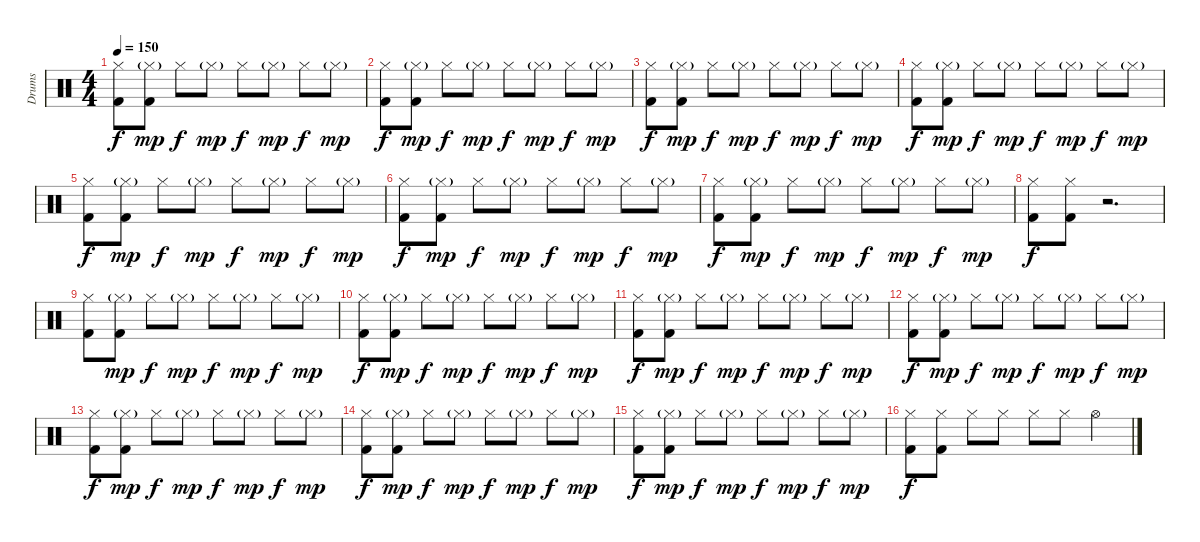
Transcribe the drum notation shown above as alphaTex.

\track ("Drums" "Drums") {instrument percussion}
\staff {score}
\articulation defaults
\ts (4 4)
\tempo 150
\clef neutral
\ks c
("Hi-Hat (closed)" "Kick (hit) 2").8{dy f} ("Hi-Hat (closed)"{g} "Kick (hit) 2").8{dy mp} "Hi-Hat (closed)".8{dy f} "Hi-Hat (closed)"{g}.8{dy mp} "Hi-Hat (closed)".8{dy f} "Hi-Hat (closed)"{g}.8{dy mp} "Hi-Hat (closed)".8{dy f} "Hi-Hat (closed)"{g}.8{dy mp} |
("Hi-Hat (closed)" "Kick (hit) 2").8{dy f} ("Hi-Hat (closed)"{g} "Kick (hit) 2").8{dy mp} "Hi-Hat (closed)".8{dy f} "Hi-Hat (closed)"{g}.8{dy mp} "Hi-Hat (closed)".8{dy f} "Hi-Hat (closed)"{g}.8{dy mp} "Hi-Hat (closed)".8{dy f} "Hi-Hat (closed)"{g}.8{dy mp} |
("Hi-Hat (closed)" "Kick (hit) 2").8{dy f} ("Hi-Hat (closed)"{g} "Kick (hit) 2").8{dy mp} "Hi-Hat (closed)".8{dy f} "Hi-Hat (closed)"{g}.8{dy mp} "Hi-Hat (closed)".8{dy f} "Hi-Hat (closed)"{g}.8{dy mp} "Hi-Hat (closed)".8{dy f} "Hi-Hat (closed)"{g}.8{dy mp} |
("Hi-Hat (closed)" "Kick (hit) 2").8{dy f} ("Hi-Hat (closed)"{g} "Kick (hit) 2").8{dy mp} "Hi-Hat (closed)".8{dy f} "Hi-Hat (closed)"{g}.8{dy mp} "Hi-Hat (closed)".8{dy f} "Hi-Hat (closed)"{g}.8{dy mp} "Hi-Hat (closed)".8{dy f} "Hi-Hat (closed)"{g}.8{dy mp} |
("Hi-Hat (closed)" "Kick (hit) 2").8{dy f} ("Hi-Hat (closed)"{g} "Kick (hit) 2").8{dy mp} "Hi-Hat (closed)".8{dy f} "Hi-Hat (closed)"{g}.8{dy mp} "Hi-Hat (closed)".8{dy f} "Hi-Hat (closed)"{g}.8{dy mp} "Hi-Hat (closed)".8{dy f} "Hi-Hat (closed)"{g}.8{dy mp} |
("Hi-Hat (closed)" "Kick (hit) 2").8{dy f} ("Hi-Hat (closed)"{g} "Kick (hit) 2").8{dy mp} "Hi-Hat (closed)".8{dy f} "Hi-Hat (closed)"{g}.8{dy mp} "Hi-Hat (closed)".8{dy f} "Hi-Hat (closed)"{g}.8{dy mp} "Hi-Hat (closed)".8{dy f} "Hi-Hat (closed)"{g}.8{dy mp} |
("Hi-Hat (closed)" "Kick (hit) 2").8{dy f} ("Hi-Hat (closed)"{g} "Kick (hit) 2").8{dy mp} "Hi-Hat (closed)".8{dy f} "Hi-Hat (closed)"{g}.8{dy mp} "Hi-Hat (closed)".8{dy f} "Hi-Hat (closed)"{g}.8{dy mp} "Hi-Hat (closed)".8{dy f} "Hi-Hat (closed)"{g}.8{dy mp} |
("Hi-Hat (closed)" "Kick (hit) 2").8{dy f} ("Hi-Hat (closed)" "Kick (hit) 2").8 r.2{d} |
("Hi-Hat (closed)" "Kick (hit) 2").8 ("Hi-Hat (closed)"{g} "Kick (hit) 2").8{dy mp} "Hi-Hat (closed)".8{dy f} "Hi-Hat (closed)"{g}.8{dy mp} "Hi-Hat (closed)".8{dy f} "Hi-Hat (closed)"{g}.8{dy mp} "Hi-Hat (closed)".8{dy f} "Hi-Hat (closed)"{g}.8{dy mp} |
("Hi-Hat (closed)" "Kick (hit) 2").8{dy f} ("Hi-Hat (closed)"{g} "Kick (hit) 2").8{dy mp} "Hi-Hat (closed)".8{dy f} "Hi-Hat (closed)"{g}.8{dy mp} "Hi-Hat (closed)".8{dy f} "Hi-Hat (closed)"{g}.8{dy mp} "Hi-Hat (closed)".8{dy f} "Hi-Hat (closed)"{g}.8{dy mp} |
("Hi-Hat (closed)" "Kick (hit) 2").8{dy f} ("Hi-Hat (closed)"{g} "Kick (hit) 2").8{dy mp} "Hi-Hat (closed)".8{dy f} "Hi-Hat (closed)"{g}.8{dy mp} "Hi-Hat (closed)".8{dy f} "Hi-Hat (closed)"{g}.8{dy mp} "Hi-Hat (closed)".8{dy f} "Hi-Hat (closed)"{g}.8{dy mp} |
("Hi-Hat (closed)" "Kick (hit) 2").8{dy f} ("Hi-Hat (closed)"{g} "Kick (hit) 2").8{dy mp} "Hi-Hat (closed)".8{dy f} "Hi-Hat (closed)"{g}.8{dy mp} "Hi-Hat (closed)".8{dy f} "Hi-Hat (closed)"{g}.8{dy mp} "Hi-Hat (closed)".8{dy f} "Hi-Hat (closed)"{g}.8{dy mp} |
("Hi-Hat (closed)" "Kick (hit) 2").8{dy f} ("Hi-Hat (closed)"{g} "Kick (hit) 2").8{dy mp} "Hi-Hat (closed)".8{dy f} "Hi-Hat (closed)"{g}.8{dy mp} "Hi-Hat (closed)".8{dy f} "Hi-Hat (closed)"{g}.8{dy mp} "Hi-Hat (closed)".8{dy f} "Hi-Hat (closed)"{g}.8{dy mp} |
("Hi-Hat (closed)" "Kick (hit) 2").8{dy f} ("Hi-Hat (closed)"{g} "Kick (hit) 2").8{dy mp} "Hi-Hat (closed)".8{dy f} "Hi-Hat (closed)"{g}.8{dy mp} "Hi-Hat (closed)".8{dy f} "Hi-Hat (closed)"{g}.8{dy mp} "Hi-Hat (closed)".8{dy f} "Hi-Hat (closed)"{g}.8{dy mp} |
("Hi-Hat (closed)" "Kick (hit) 2").8{dy f} ("Hi-Hat (closed)"{g} "Kick (hit) 2").8{dy mp} "Hi-Hat (closed)".8{dy f} "Hi-Hat (closed)"{g}.8{dy mp} "Hi-Hat (closed)".8{dy f} "Hi-Hat (closed)"{g}.8{dy mp} "Hi-Hat (closed)".8{dy f} "Hi-Hat (closed)"{g}.8{dy mp} |
("Hi-Hat (closed)" "Kick (hit) 2").8{dy f} ("Hi-Hat (closed)" "Kick (hit) 2").8 "Hi-Hat (closed)".8 "Hi-Hat (closed)".8 "Hi-Hat (closed)".8 "Hi-Hat (closed)".8 "Hi-Hat (open)".4
